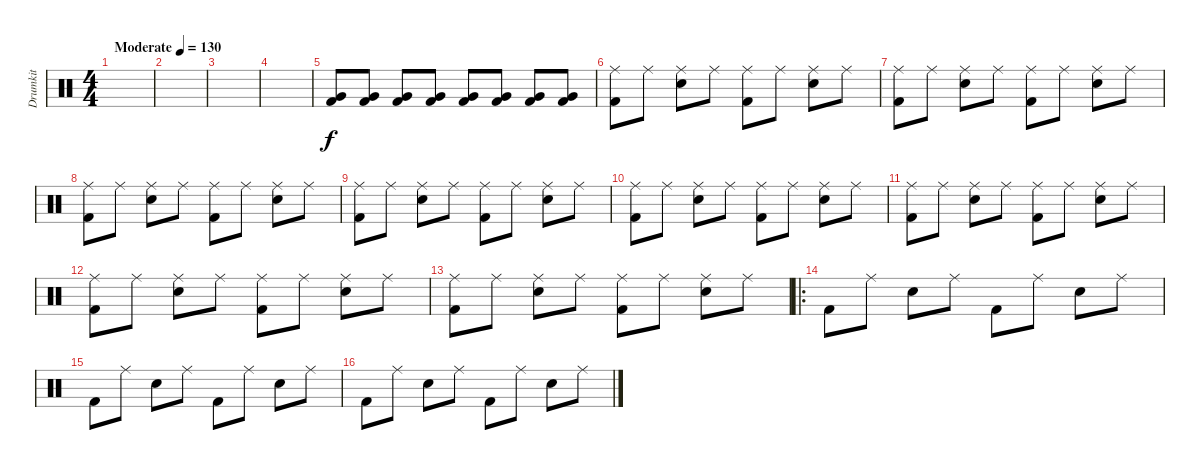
\track ("Drumkit" "Drumkit") {instrument percussion}
\staff {score}
\articulation defaults
\ts (4 4)
\tempo (130 "Moderate")
\clef neutral
\ks c
|
|
|
|
("Kick (hit) 2" "Very Low Tom (hit)").8 ("Kick (hit) 2" "Very Low Tom (hit)").8 ("Kick (hit) 2" "Very Low Tom (hit)").8 ("Kick (hit) 2" "Very Low Tom (hit)").8 ("Kick (hit) 2" "Very Low Tom (hit)").8 ("Kick (hit) 2" "Very Low Tom (hit)").8 ("Kick (hit) 2" "Very Low Tom (hit)").8 ("Kick (hit) 2" "Very Low Tom (hit)").8 |
("Kick (hit) 2" "Ride (middle)").8 "Ride (middle)".8 ("Snare (hit) 2" "Ride (middle)").8 "Ride (middle)".8 ("Kick (hit) 2" "Ride (middle)").8 "Ride (middle)".8 ("Snare (hit) 2" "Ride (middle)").8 "Ride (middle)".8 |
("Kick (hit) 2" "Ride (middle)").8 "Ride (middle)".8 ("Snare (hit) 2" "Ride (middle)").8 "Ride (middle)".8 ("Kick (hit) 2" "Ride (middle)").8 "Ride (middle)".8 ("Snare (hit) 2" "Ride (middle)").8 "Ride (middle)".8 |
("Kick (hit) 2" "Ride (middle)").8 "Ride (middle)".8 ("Snare (hit) 2" "Ride (middle)").8 "Ride (middle)".8 ("Kick (hit) 2" "Ride (middle)").8 "Ride (middle)".8 ("Snare (hit) 2" "Ride (middle)").8 "Ride (middle)".8 |
("Kick (hit) 2" "Ride (middle)").8 "Ride (middle)".8 ("Snare (hit) 2" "Ride (middle)").8 "Ride (middle)".8 ("Kick (hit) 2" "Ride (middle)").8 "Ride (middle)".8 ("Snare (hit) 2" "Ride (middle)").8 "Ride (middle)".8 |
("Kick (hit) 2" "Ride (middle)").8 "Ride (middle)".8 ("Snare (hit) 2" "Ride (middle)").8 "Ride (middle)".8 ("Kick (hit) 2" "Ride (middle)").8 "Ride (middle)".8 ("Snare (hit) 2" "Ride (middle)").8 "Ride (middle)".8 |
("Kick (hit) 2" "Ride (middle)").8 "Ride (middle)".8 ("Snare (hit) 2" "Ride (middle)").8 "Ride (middle)".8 ("Kick (hit) 2" "Ride (middle)").8 "Ride (middle)".8 ("Snare (hit) 2" "Ride (middle)").8 "Ride (middle)".8 |
("Kick (hit) 2" "Ride (middle)").8 "Ride (middle)".8 ("Snare (hit) 2" "Ride (middle)").8 "Ride (middle)".8 ("Kick (hit) 2" "Ride (middle)").8 "Ride (middle)".8 ("Snare (hit) 2" "Ride (middle)").8 "Ride (middle)".8 |
("Kick (hit) 2" "Ride (middle)").8 "Ride (middle)".8 ("Snare (hit) 2" "Ride (middle)").8 "Ride (middle)".8 ("Kick (hit) 2" "Ride (middle)").8 "Ride (middle)".8 ("Snare (hit) 2" "Ride (middle)").8 "Ride (middle)".8 |
\ro "Kick (hit) 2".8 "Ride (middle)".8 "Snare (hit) 2".8 "Ride (middle)".8 "Kick (hit) 2".8 "Ride (middle)".8 "Snare (hit) 2".8 "Ride (middle)".8
|
"Kick (hit) 2".8 "Ride (middle)".8 "Snare (hit) 2".8 "Ride (middle)".8 "Kick (hit) 2".8 "Ride (middle)".8 "Snare (hit) 2".8 "Ride (middle)".8 |
"Kick (hit) 2".8 "Ride (middle)".8 "Snare (hit) 2".8 "Ride (middle)".8 "Kick (hit) 2".8 "Ride (middle)".8 "Snare (hit) 2".8 "Ride (middle)".8
